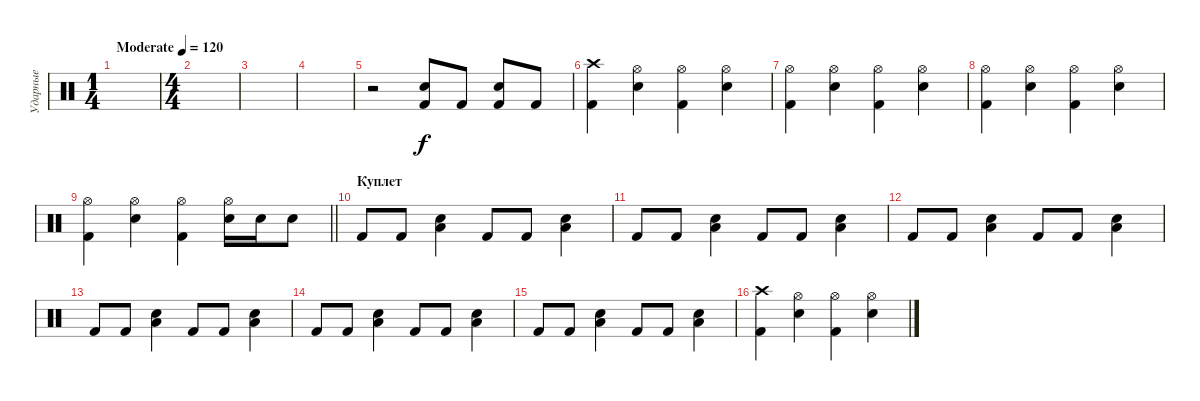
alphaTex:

\track ("Ударные" "Ударные") {instrument percussion}
\staff {score}
\articulation defaults
\ts (1 4)
\tempo (120 "Moderate")
\clef neutral
\ks c
|
\ts (4 4)
|
|
|
r.2 ("Snare (hit) 2" "Kick (hit) 2").8 "Kick (hit) 2".8 ("Snare (hit) 2" "Kick (hit) 2").8 "Kick (hit) 2".8 |
("Crash high (hit)" "Kick (hit) 2").4 ("Hi-Hat (open)" "Snare (hit) 2").4 ("Hi-Hat (open)" "Kick (hit) 2").4 ("Hi-Hat (open)" "Snare (hit) 2").4 |
("Hi-Hat (open)" "Kick (hit) 2").4 ("Hi-Hat (open)" "Snare (hit) 2").4 ("Hi-Hat (open)" "Kick (hit) 2").4 ("Hi-Hat (open)" "Snare (hit) 2").4 |
("Hi-Hat (open)" "Kick (hit) 2").4 ("Hi-Hat (open)" "Snare (hit) 2").4 ("Hi-Hat (open)" "Kick (hit) 2").4 ("Hi-Hat (open)" "Snare (hit) 2").4 |
\barLineRight lightlight
("Hi-Hat (open)" "Kick (hit) 2").4 ("Hi-Hat (open)" "Snare (hit) 2").4 ("Hi-Hat (open)" "Kick (hit) 2").4 ("Hi-Hat (open)" "Snare (hit) 2").16 "Snare (hit) 2".16 "Snare (hit) 2".8 |
\section ("" "Куплет")
"Kick (hit) 2".8 "Kick (hit) 2".8 ("Low Tom (hit)" "Snare (hit) 2").4 "Kick (hit) 2".8 "Kick (hit) 2".8 ("Low Tom (hit)" "Snare (hit) 2").4 |
"Kick (hit) 2".8 "Kick (hit) 2".8 ("Low Tom (hit)" "Snare (hit) 2").4 "Kick (hit) 2".8 "Kick (hit) 2".8 ("Low Tom (hit)" "Snare (hit) 2").4 |
"Kick (hit) 2".8 "Kick (hit) 2".8 ("Low Tom (hit)" "Snare (hit) 2").4 "Kick (hit) 2".8 "Kick (hit) 2".8 ("Low Tom (hit)" "Snare (hit) 2").4 |
"Kick (hit) 2".8 "Kick (hit) 2".8 ("Low Tom (hit)" "Snare (hit) 2").4 "Kick (hit) 2".8 "Kick (hit) 2".8 ("Low Tom (hit)" "Snare (hit) 2").4 |
"Kick (hit) 2".8 "Kick (hit) 2".8 ("Low Tom (hit)" "Snare (hit) 2").4 "Kick (hit) 2".8 "Kick (hit) 2".8 ("Low Tom (hit)" "Snare (hit) 2").4 |
"Kick (hit) 2".8 "Kick (hit) 2".8 ("Low Tom (hit)" "Snare (hit) 2").4 "Kick (hit) 2".8 "Kick (hit) 2".8 ("Low Tom (hit)" "Snare (hit) 2").4 |
("Crash high (hit)" "Kick (hit) 2").4 ("Hi-Hat (open)" "Snare (hit) 2").4 ("Hi-Hat (open)" "Kick (hit) 2").4 ("Hi-Hat (open)" "Snare (hit) 2").4
